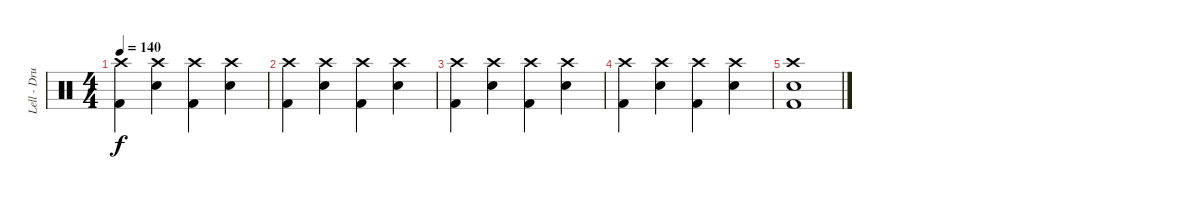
\track ("Lell - Drums" "Lell - Dru") {instrument percussion}
\staff {score}
\articulation defaults
\ts (4 4)
\tempo 140
\clef neutral
\ks c
("Crash high (hit)" "Kick (hit) 2").4{dy f} ("Crash high (hit)" "Snare (hit) 2").4 ("Crash high (hit)" "Kick (hit) 2").4 ("Crash high (hit)" "Snare (hit) 2").4 |
("Crash high (hit)" "Kick (hit) 2").4 ("Crash high (hit)" "Snare (hit) 2").4 ("Crash high (hit)" "Kick (hit) 2").4 ("Crash high (hit)" "Snare (hit) 2").4 |
("Crash high (hit)" "Kick (hit) 2").4 ("Crash high (hit)" "Snare (hit) 2").4 ("Crash high (hit)" "Kick (hit) 2").4 ("Crash high (hit)" "Snare (hit) 2").4 |
("Crash high (hit)" "Kick (hit) 2").4 ("Crash high (hit)" "Snare (hit) 2").4 ("Crash high (hit)" "Kick (hit) 2").4 ("Crash high (hit)" "Snare (hit) 2").4 |
("Crash high (hit)" "Snare (hit) 2" "Kick (hit) 2").1
